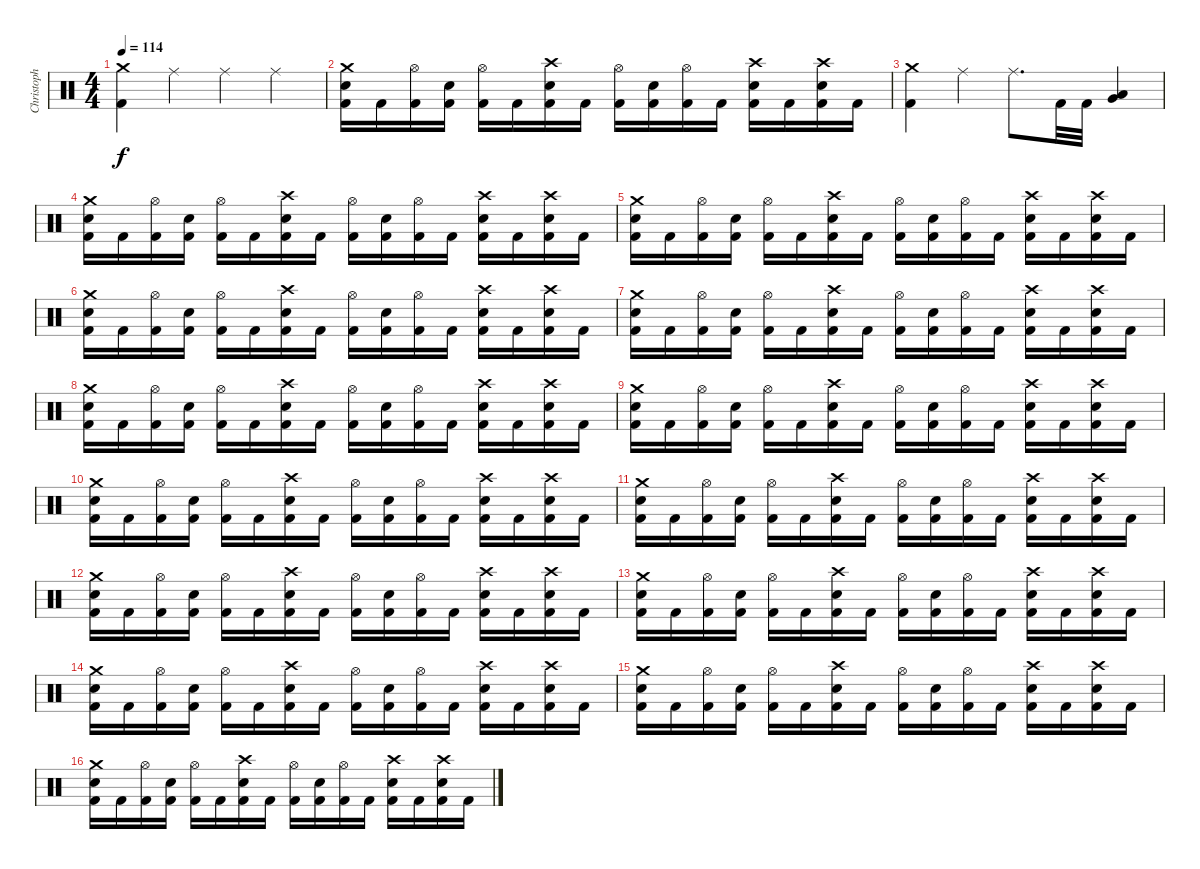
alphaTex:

\track ("Christoph Schneider [Drums]" "Christoph ") {instrument percussion}
\staff {score}
\articulation defaults
\ts (4 4)
\tempo 114
\clef neutral
\ks c
("Crash medium (hit)" "Kick (hit) 2").4{dy f} "Ride (middle)".4 "Ride (middle)".4 "Ride (middle)".4 |
("Crash medium (hit)" "Electric Snare (hit)" "Kick (hit) 2").16 "Kick (hit) 2".16 ("Hi-Hat (open)" "Kick (hit) 2").16 ("Electric Snare (hit)" "Kick (hit) 2").16 ("Hi-Hat (open)" "Kick (hit) 2").16 "Kick (hit) 2".16 ("Crash high (hit)" "Electric Snare (hit)" "Kick (hit) 2").16 "Kick (hit) 2".16 ("Hi-Hat (open)" "Kick (hit) 2").16 ("Electric Snare (hit)" "Kick (hit) 2").16 ("Hi-Hat (open)" "Kick (hit) 2").16 "Kick (hit) 2".16 ("Crash high (hit)" "Electric Snare (hit)" "Kick (hit) 2").16 "Kick (hit) 2".16 ("Crash high (hit)" "Electric Snare (hit)" "Kick (hit) 2").16 "Kick (hit) 2".16 |
("Crash medium (hit)" "Kick (hit) 2").4 "Ride (middle)".4 "Ride (middle)".8{d} "Kick (hit) 2".32 "Kick (hit) 2".32 ("Very Low Tom (hit)" "Low Floor Tom (hit)").4 |
("Crash medium (hit)" "Electric Snare (hit)" "Kick (hit) 2").16 "Kick (hit) 2".16 ("Hi-Hat (open)" "Kick (hit) 2").16 ("Electric Snare (hit)" "Kick (hit) 2").16 ("Hi-Hat (open)" "Kick (hit) 2").16 "Kick (hit) 2".16 ("Crash high (hit)" "Electric Snare (hit)" "Kick (hit) 2").16 "Kick (hit) 2".16 ("Hi-Hat (open)" "Kick (hit) 2").16 ("Electric Snare (hit)" "Kick (hit) 2").16 ("Hi-Hat (open)" "Kick (hit) 2").16 "Kick (hit) 2".16 ("Crash high (hit)" "Electric Snare (hit)" "Kick (hit) 2").16 "Kick (hit) 2".16 ("Crash high (hit)" "Electric Snare (hit)" "Kick (hit) 2").16 "Kick (hit) 2".16 |
("Crash medium (hit)" "Electric Snare (hit)" "Kick (hit) 2").16 "Kick (hit) 2".16 ("Hi-Hat (open)" "Kick (hit) 2").16 ("Electric Snare (hit)" "Kick (hit) 2").16 ("Hi-Hat (open)" "Kick (hit) 2").16 "Kick (hit) 2".16 ("Crash high (hit)" "Electric Snare (hit)" "Kick (hit) 2").16 "Kick (hit) 2".16 ("Hi-Hat (open)" "Kick (hit) 2").16 ("Electric Snare (hit)" "Kick (hit) 2").16 ("Hi-Hat (open)" "Kick (hit) 2").16 "Kick (hit) 2".16 ("Crash high (hit)" "Electric Snare (hit)" "Kick (hit) 2").16 "Kick (hit) 2".16 ("Crash high (hit)" "Electric Snare (hit)" "Kick (hit) 2").16 "Kick (hit) 2".16 |
("Crash medium (hit)" "Electric Snare (hit)" "Kick (hit) 2").16 "Kick (hit) 2".16 ("Hi-Hat (open)" "Kick (hit) 2").16 ("Electric Snare (hit)" "Kick (hit) 2").16 ("Hi-Hat (open)" "Kick (hit) 2").16 "Kick (hit) 2".16 ("Crash high (hit)" "Electric Snare (hit)" "Kick (hit) 2").16 "Kick (hit) 2".16 ("Hi-Hat (open)" "Kick (hit) 2").16 ("Electric Snare (hit)" "Kick (hit) 2").16 ("Hi-Hat (open)" "Kick (hit) 2").16 "Kick (hit) 2".16 ("Crash high (hit)" "Electric Snare (hit)" "Kick (hit) 2").16 "Kick (hit) 2".16 ("Crash high (hit)" "Electric Snare (hit)" "Kick (hit) 2").16 "Kick (hit) 2".16 |
("Crash medium (hit)" "Electric Snare (hit)" "Kick (hit) 2").16 "Kick (hit) 2".16 ("Hi-Hat (open)" "Kick (hit) 2").16 ("Electric Snare (hit)" "Kick (hit) 2").16 ("Hi-Hat (open)" "Kick (hit) 2").16 "Kick (hit) 2".16 ("Crash high (hit)" "Electric Snare (hit)" "Kick (hit) 2").16 "Kick (hit) 2".16 ("Hi-Hat (open)" "Kick (hit) 2").16 ("Electric Snare (hit)" "Kick (hit) 2").16 ("Hi-Hat (open)" "Kick (hit) 2").16 "Kick (hit) 2".16 ("Crash high (hit)" "Electric Snare (hit)" "Kick (hit) 2").16 "Kick (hit) 2".16 ("Crash high (hit)" "Electric Snare (hit)" "Kick (hit) 2").16 "Kick (hit) 2".16 |
("Crash medium (hit)" "Electric Snare (hit)" "Kick (hit) 2").16 "Kick (hit) 2".16 ("Hi-Hat (open)" "Kick (hit) 2").16 ("Electric Snare (hit)" "Kick (hit) 2").16 ("Hi-Hat (open)" "Kick (hit) 2").16 "Kick (hit) 2".16 ("Crash high (hit)" "Electric Snare (hit)" "Kick (hit) 2").16 "Kick (hit) 2".16 ("Hi-Hat (open)" "Kick (hit) 2").16 ("Electric Snare (hit)" "Kick (hit) 2").16 ("Hi-Hat (open)" "Kick (hit) 2").16 "Kick (hit) 2".16 ("Crash high (hit)" "Electric Snare (hit)" "Kick (hit) 2").16 "Kick (hit) 2".16 ("Crash high (hit)" "Electric Snare (hit)" "Kick (hit) 2").16 "Kick (hit) 2".16 |
("Crash medium (hit)" "Electric Snare (hit)" "Kick (hit) 2").16 "Kick (hit) 2".16 ("Hi-Hat (open)" "Kick (hit) 2").16 ("Electric Snare (hit)" "Kick (hit) 2").16 ("Hi-Hat (open)" "Kick (hit) 2").16 "Kick (hit) 2".16 ("Crash high (hit)" "Electric Snare (hit)" "Kick (hit) 2").16 "Kick (hit) 2".16 ("Hi-Hat (open)" "Kick (hit) 2").16 ("Electric Snare (hit)" "Kick (hit) 2").16 ("Hi-Hat (open)" "Kick (hit) 2").16 "Kick (hit) 2".16 ("Crash high (hit)" "Electric Snare (hit)" "Kick (hit) 2").16 "Kick (hit) 2".16 ("Crash high (hit)" "Electric Snare (hit)" "Kick (hit) 2").16 "Kick (hit) 2".16 |
("Crash medium (hit)" "Electric Snare (hit)" "Kick (hit) 2").16 "Kick (hit) 2".16 ("Hi-Hat (open)" "Kick (hit) 2").16 ("Electric Snare (hit)" "Kick (hit) 2").16 ("Hi-Hat (open)" "Kick (hit) 2").16 "Kick (hit) 2".16 ("Crash high (hit)" "Electric Snare (hit)" "Kick (hit) 2").16 "Kick (hit) 2".16 ("Hi-Hat (open)" "Kick (hit) 2").16 ("Electric Snare (hit)" "Kick (hit) 2").16 ("Hi-Hat (open)" "Kick (hit) 2").16 "Kick (hit) 2".16 ("Crash high (hit)" "Electric Snare (hit)" "Kick (hit) 2").16 "Kick (hit) 2".16 ("Crash high (hit)" "Electric Snare (hit)" "Kick (hit) 2").16 "Kick (hit) 2".16 |
("Crash medium (hit)" "Electric Snare (hit)" "Kick (hit) 2").16 "Kick (hit) 2".16 ("Hi-Hat (open)" "Kick (hit) 2").16 ("Electric Snare (hit)" "Kick (hit) 2").16 ("Hi-Hat (open)" "Kick (hit) 2").16 "Kick (hit) 2".16 ("Crash high (hit)" "Electric Snare (hit)" "Kick (hit) 2").16 "Kick (hit) 2".16 ("Hi-Hat (open)" "Kick (hit) 2").16 ("Electric Snare (hit)" "Kick (hit) 2").16 ("Hi-Hat (open)" "Kick (hit) 2").16 "Kick (hit) 2".16 ("Crash high (hit)" "Electric Snare (hit)" "Kick (hit) 2").16 "Kick (hit) 2".16 ("Crash high (hit)" "Electric Snare (hit)" "Kick (hit) 2").16 "Kick (hit) 2".16 |
("Crash medium (hit)" "Electric Snare (hit)" "Kick (hit) 2").16 "Kick (hit) 2".16 ("Hi-Hat (open)" "Kick (hit) 2").16 ("Electric Snare (hit)" "Kick (hit) 2").16 ("Hi-Hat (open)" "Kick (hit) 2").16 "Kick (hit) 2".16 ("Crash high (hit)" "Electric Snare (hit)" "Kick (hit) 2").16 "Kick (hit) 2".16 ("Hi-Hat (open)" "Kick (hit) 2").16 ("Electric Snare (hit)" "Kick (hit) 2").16 ("Hi-Hat (open)" "Kick (hit) 2").16 "Kick (hit) 2".16 ("Crash high (hit)" "Electric Snare (hit)" "Kick (hit) 2").16 "Kick (hit) 2".16 ("Crash high (hit)" "Electric Snare (hit)" "Kick (hit) 2").16 "Kick (hit) 2".16 |
("Crash medium (hit)" "Electric Snare (hit)" "Kick (hit) 2").16 "Kick (hit) 2".16 ("Hi-Hat (open)" "Kick (hit) 2").16 ("Electric Snare (hit)" "Kick (hit) 2").16 ("Hi-Hat (open)" "Kick (hit) 2").16 "Kick (hit) 2".16 ("Crash high (hit)" "Electric Snare (hit)" "Kick (hit) 2").16 "Kick (hit) 2".16 ("Hi-Hat (open)" "Kick (hit) 2").16 ("Electric Snare (hit)" "Kick (hit) 2").16 ("Hi-Hat (open)" "Kick (hit) 2").16 "Kick (hit) 2".16 ("Crash high (hit)" "Electric Snare (hit)" "Kick (hit) 2").16 "Kick (hit) 2".16 ("Crash high (hit)" "Electric Snare (hit)" "Kick (hit) 2").16 "Kick (hit) 2".16 |
("Crash medium (hit)" "Electric Snare (hit)" "Kick (hit) 2").16 "Kick (hit) 2".16 ("Hi-Hat (open)" "Kick (hit) 2").16 ("Electric Snare (hit)" "Kick (hit) 2").16 ("Hi-Hat (open)" "Kick (hit) 2").16 "Kick (hit) 2".16 ("Crash high (hit)" "Electric Snare (hit)" "Kick (hit) 2").16 "Kick (hit) 2".16 ("Hi-Hat (open)" "Kick (hit) 2").16 ("Electric Snare (hit)" "Kick (hit) 2").16 ("Hi-Hat (open)" "Kick (hit) 2").16 "Kick (hit) 2".16 ("Crash high (hit)" "Electric Snare (hit)" "Kick (hit) 2").16 "Kick (hit) 2".16 ("Crash high (hit)" "Electric Snare (hit)" "Kick (hit) 2").16 "Kick (hit) 2".16 |
("Crash medium (hit)" "Electric Snare (hit)" "Kick (hit) 2").16 "Kick (hit) 2".16 ("Hi-Hat (open)" "Kick (hit) 2").16 ("Electric Snare (hit)" "Kick (hit) 2").16 ("Hi-Hat (open)" "Kick (hit) 2").16 "Kick (hit) 2".16 ("Crash high (hit)" "Electric Snare (hit)" "Kick (hit) 2").16 "Kick (hit) 2".16 ("Hi-Hat (open)" "Kick (hit) 2").16 ("Electric Snare (hit)" "Kick (hit) 2").16 ("Hi-Hat (open)" "Kick (hit) 2").16 "Kick (hit) 2".16 ("Crash high (hit)" "Electric Snare (hit)" "Kick (hit) 2").16 "Kick (hit) 2".16 ("Crash high (hit)" "Electric Snare (hit)" "Kick (hit) 2").16 "Kick (hit) 2".16 |
("Crash medium (hit)" "Electric Snare (hit)" "Kick (hit) 2").16 "Kick (hit) 2".16 ("Hi-Hat (open)" "Kick (hit) 2").16 ("Electric Snare (hit)" "Kick (hit) 2").16 ("Hi-Hat (open)" "Kick (hit) 2").16 "Kick (hit) 2".16 ("Crash high (hit)" "Electric Snare (hit)" "Kick (hit) 2").16 "Kick (hit) 2".16 ("Hi-Hat (open)" "Kick (hit) 2").16 ("Electric Snare (hit)" "Kick (hit) 2").16 ("Hi-Hat (open)" "Kick (hit) 2").16 "Kick (hit) 2".16 ("Crash high (hit)" "Electric Snare (hit)" "Kick (hit) 2").16 "Kick (hit) 2".16 ("Crash high (hit)" "Electric Snare (hit)" "Kick (hit) 2").16 "Kick (hit) 2".16
